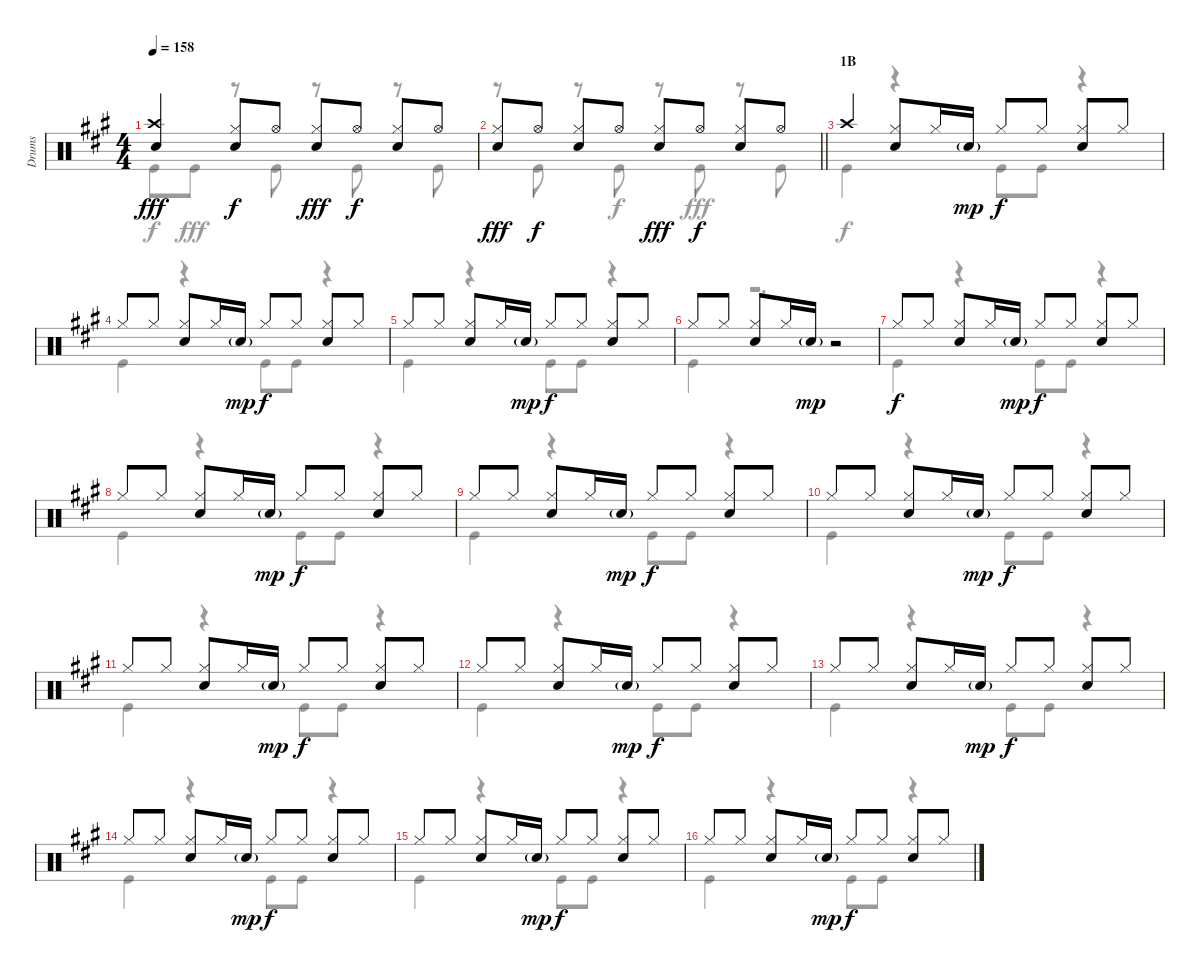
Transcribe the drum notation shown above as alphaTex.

\track ("Drums" "Drums") {instrument percussion}
\staff {score}
\articulation defaults
\voice
\ts (4 4)
\tempo 158
\clef neutral
\ks a
("Crash high (hit)" "Snare (hit) 2").4{dy fff} ("Hi-Hat (closed)" "Snare (hit) 2").8{dy f} "Hi-Hat (open)".8 ("Hi-Hat (closed)" "Snare (hit) 2").8{dy fff} "Hi-Hat (open)".8{dy f} ("Hi-Hat (closed)" "Snare (hit) 2").8 "Hi-Hat (open)".8 |
\barLineRight lightlight
("Hi-Hat (closed)" "Snare (hit) 2").8{dy fff} "Hi-Hat (open)".8{dy f} ("Hi-Hat (closed)" "Snare (hit) 2").8 "Hi-Hat (open)".8 ("Hi-Hat (closed)" "Snare (hit) 2").8{dy fff} "Hi-Hat (open)".8{dy f} ("Hi-Hat (closed)" "Snare (hit) 2").8 "Hi-Hat (open)".8 |
\section ("" "1B")
"Crash high (hit)".4 ("Hi-Hat (closed)" "Snare (hit) 2").8 "Hi-Hat (closed)".16 "Snare (hit) 2"{g}.16{dy mp} "Hi-Hat (closed)".8{dy f} "Hi-Hat (closed)".8 ("Hi-Hat (closed)" "Snare (hit) 2").8 "Hi-Hat (closed)".8 |
"Hi-Hat (closed)".8 "Hi-Hat (closed)".8 ("Hi-Hat (closed)" "Snare (hit) 2").8 "Hi-Hat (closed)".16 "Snare (hit) 2"{g}.16{dy mp} "Hi-Hat (closed)".8{dy f} "Hi-Hat (closed)".8 ("Hi-Hat (closed)" "Snare (hit) 2").8 "Hi-Hat (closed)".8 |
"Hi-Hat (closed)".8 "Hi-Hat (closed)".8 ("Hi-Hat (closed)" "Snare (hit) 2").8 "Hi-Hat (closed)".16 "Snare (hit) 2"{g}.16{dy mp} "Hi-Hat (closed)".8{dy f} "Hi-Hat (closed)".8 ("Hi-Hat (closed)" "Snare (hit) 2").8 "Hi-Hat (closed)".8 |
"Hi-Hat (closed)".8 "Hi-Hat (closed)".8 ("Hi-Hat (closed)" "Snare (hit) 2").8 "Hi-Hat (closed)".16 "Snare (hit) 2"{g}.16{dy mp} r.2 |
"Hi-Hat (closed)".8{dy f} "Hi-Hat (closed)".8 ("Hi-Hat (closed)" "Snare (hit) 2").8 "Hi-Hat (closed)".16 "Snare (hit) 2"{g}.16{dy mp} "Hi-Hat (closed)".8{dy f} "Hi-Hat (closed)".8 ("Hi-Hat (closed)" "Snare (hit) 2").8 "Hi-Hat (closed)".8 |
"Hi-Hat (closed)".8 "Hi-Hat (closed)".8 ("Hi-Hat (closed)" "Snare (hit) 2").8 "Hi-Hat (closed)".16 "Snare (hit) 2"{g}.16{dy mp} "Hi-Hat (closed)".8{dy f} "Hi-Hat (closed)".8 ("Hi-Hat (closed)" "Snare (hit) 2").8 "Hi-Hat (closed)".8 |
"Hi-Hat (closed)".8 "Hi-Hat (closed)".8 ("Hi-Hat (closed)" "Snare (hit) 2").8 "Hi-Hat (closed)".16 "Snare (hit) 2"{g}.16{dy mp} "Hi-Hat (closed)".8{dy f} "Hi-Hat (closed)".8 ("Hi-Hat (closed)" "Snare (hit) 2").8 "Hi-Hat (closed)".8 |
"Hi-Hat (closed)".8 "Hi-Hat (closed)".8 ("Hi-Hat (closed)" "Snare (hit) 2").8 "Hi-Hat (closed)".16 "Snare (hit) 2"{g}.16{dy mp} "Hi-Hat (closed)".8{dy f} "Hi-Hat (closed)".8 ("Hi-Hat (closed)" "Snare (hit) 2").8 "Hi-Hat (closed)".8 |
"Hi-Hat (closed)".8 "Hi-Hat (closed)".8 ("Hi-Hat (closed)" "Snare (hit) 2").8 "Hi-Hat (closed)".16 "Snare (hit) 2"{g}.16{dy mp} "Hi-Hat (closed)".8{dy f} "Hi-Hat (closed)".8 ("Hi-Hat (closed)" "Snare (hit) 2").8 "Hi-Hat (closed)".8 |
"Hi-Hat (closed)".8 "Hi-Hat (closed)".8 ("Hi-Hat (closed)" "Snare (hit) 2").8 "Hi-Hat (closed)".16 "Snare (hit) 2"{g}.16{dy mp} "Hi-Hat (closed)".8{dy f} "Hi-Hat (closed)".8 ("Hi-Hat (closed)" "Snare (hit) 2").8 "Hi-Hat (closed)".8 |
"Hi-Hat (closed)".8 "Hi-Hat (closed)".8 ("Hi-Hat (closed)" "Snare (hit) 2").8 "Hi-Hat (closed)".16 "Snare (hit) 2"{g}.16{dy mp} "Hi-Hat (closed)".8{dy f} "Hi-Hat (closed)".8 ("Hi-Hat (closed)" "Snare (hit) 2").8 "Hi-Hat (closed)".8 |
"Hi-Hat (closed)".8 "Hi-Hat (closed)".8 ("Hi-Hat (closed)" "Snare (hit) 2").8 "Hi-Hat (closed)".16 "Snare (hit) 2"{g}.16{dy mp} "Hi-Hat (closed)".8{dy f} "Hi-Hat (closed)".8 ("Hi-Hat (closed)" "Snare (hit) 2").8 "Hi-Hat (closed)".8 |
"Hi-Hat (closed)".8 "Hi-Hat (closed)".8 ("Hi-Hat (closed)" "Snare (hit) 2").8 "Hi-Hat (closed)".16 "Snare (hit) 2"{g}.16{dy mp} "Hi-Hat (closed)".8{dy f} "Hi-Hat (closed)".8 ("Hi-Hat (closed)" "Snare (hit) 2").8 "Hi-Hat (closed)".8 |
"Hi-Hat (closed)".8 "Hi-Hat (closed)".8 ("Hi-Hat (closed)" "Snare (hit) 2").8 "Hi-Hat (closed)".16 "Snare (hit) 2"{g}.16{dy mp} "Hi-Hat (closed)".8{dy f} "Hi-Hat (closed)".8 ("Hi-Hat (closed)" "Snare (hit) 2").8 "Hi-Hat (closed)".8
\voice
\clef neutral
\ottava regular
\simile none
\ks a "Kick (hit)".8{dy f} "Kick (hit)".8{dy fff}
r.8 "Kick (hit)".8 r.8 "Kick (hit)".8 r.8 "Kick (hit)".8 |
\barLineRight lightlight
r.8 "Kick (hit)".8 r.8 "Kick (hit)".8{dy f} r.8 "Kick (hit)".8{dy fff} r.8 "Kick (hit)".8 |
"Kick (hit)".4{dy f} r.4 "Kick (hit)".8 "Kick (hit)".8 r.4 |
"Kick (hit)".4 r.4 "Kick (hit)".8 "Kick (hit)".8 r.4 |
"Kick (hit)".4 r.4 "Kick (hit)".8 "Kick (hit)".8 r.4 |
"Kick (hit)".4 r.2{d} |
"Kick (hit)".4 r.4 "Kick (hit)".8 "Kick (hit)".8 r.4 |
"Kick (hit)".4 r.4 "Kick (hit)".8 "Kick (hit)".8 r.4 |
"Kick (hit)".4 r.4 "Kick (hit)".8 "Kick (hit)".8 r.4 |
"Kick (hit)".4 r.4 "Kick (hit)".8 "Kick (hit)".8 r.4 |
"Kick (hit)".4 r.4 "Kick (hit)".8 "Kick (hit)".8 r.4 |
"Kick (hit)".4 r.4 "Kick (hit)".8 "Kick (hit)".8 r.4 |
"Kick (hit)".4 r.4 "Kick (hit)".8 "Kick (hit)".8 r.4 |
"Kick (hit)".4 r.4 "Kick (hit)".8 "Kick (hit)".8 r.4 |
"Kick (hit)".4 r.4 "Kick (hit)".8 "Kick (hit)".8 r.4 |
"Kick (hit)".4 r.4 "Kick (hit)".8 "Kick (hit)".8 r.4
